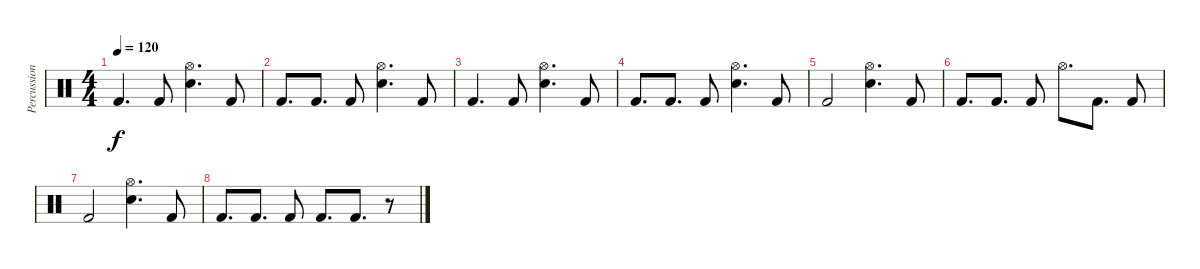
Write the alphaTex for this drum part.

\track ("Percussions" "Percussion") {instrument percussion}
\staff {score}
\articulation defaults
\ts (4 4)
\tempo 120
\clef neutral
\ks c "Kick (hit) 2".4{d dy f} "Kick (hit) 2".8
("Hi-Hat (open)" "Snare (hit) 2").4{d} "Kick (hit) 2".8 |
"Kick (hit) 2".8{d} "Kick (hit) 2".8{d} "Kick (hit) 2".8 ("Hi-Hat (open)" "Snare (hit) 2").4{d} "Kick (hit) 2".8 |
"Kick (hit) 2".4{d} "Kick (hit) 2".8 ("Hi-Hat (open)" "Snare (hit) 2").4{d} "Kick (hit) 2".8 |
"Kick (hit) 2".8{d} "Kick (hit) 2".8{d} "Kick (hit) 2".8 ("Hi-Hat (open)" "Snare (hit) 2").4{d} "Kick (hit) 2".8 |
"Kick (hit) 2".2 ("Hi-Hat (open)" "Snare (hit) 2").4{d} "Kick (hit) 2".8 |
"Kick (hit) 2".8{d} "Kick (hit) 2".8{d} "Kick (hit) 2".8 "Hi-Hat (open)".8{d} "Kick (hit) 2".8{d} "Kick (hit) 2".8 |
"Kick (hit) 2".2 ("Hi-Hat (open)" "Snare (hit) 2").4{d} "Kick (hit) 2".8 |
"Kick (hit) 2".8{d} "Kick (hit) 2".8{d} "Kick (hit) 2".8 "Kick (hit) 2".8{d} "Kick (hit) 2".8{d} r.8
